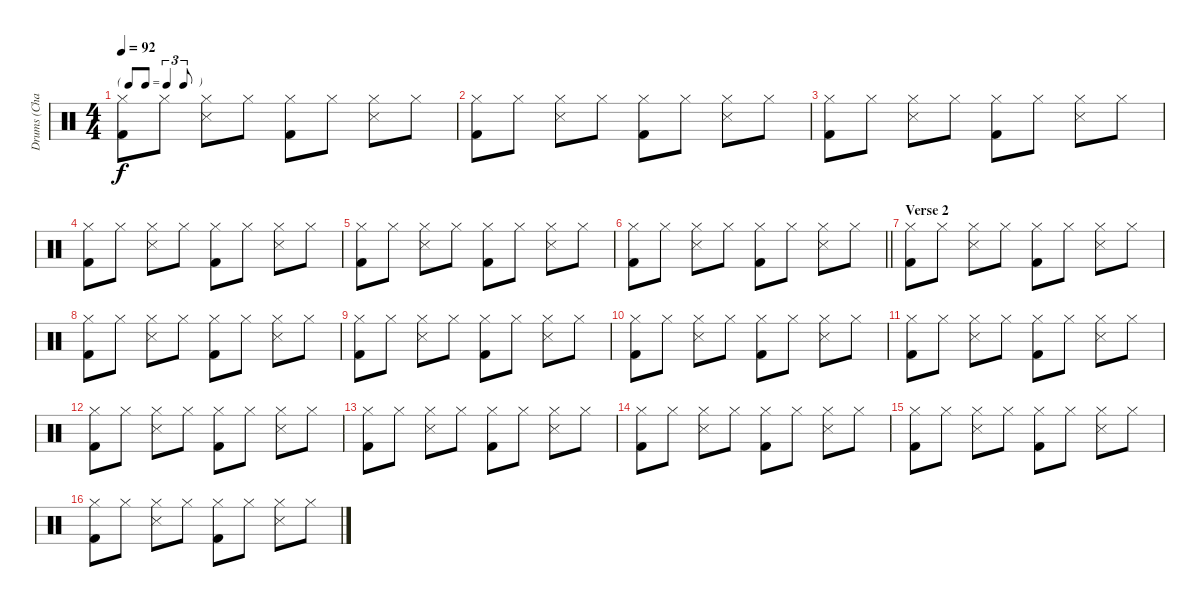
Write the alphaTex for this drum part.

\track ("Drums (Charlie)" "Drums (Cha") {instrument percussion}
\staff {score}
\articulation defaults
\ts (4 4)
\tf triplet8th
\tempo 92
\clef neutral
\ks c
("Hi-Hat (closed)" "Kick (hit) 2").8{dy f} "Hi-Hat (closed)".8 ("Hi-Hat (closed)" "Snare (side stick) 3").8 "Hi-Hat (closed)".8 ("Hi-Hat (closed)" "Kick (hit) 2").8 "Hi-Hat (closed)".8 ("Hi-Hat (closed)" "Snare (side stick) 3").8 "Hi-Hat (closed)".8 |
("Hi-Hat (closed)" "Kick (hit) 2").8 "Hi-Hat (closed)".8 ("Hi-Hat (closed)" "Snare (side stick) 3").8 "Hi-Hat (closed)".8 ("Hi-Hat (closed)" "Kick (hit) 2").8 "Hi-Hat (closed)".8 ("Hi-Hat (closed)" "Snare (side stick) 3").8 "Hi-Hat (closed)".8 |
("Hi-Hat (closed)" "Kick (hit) 2").8 "Hi-Hat (closed)".8 ("Hi-Hat (closed)" "Snare (side stick) 3").8 "Hi-Hat (closed)".8 ("Hi-Hat (closed)" "Kick (hit) 2").8 "Hi-Hat (closed)".8 ("Hi-Hat (closed)" "Snare (side stick) 3").8 "Hi-Hat (closed)".8 |
("Hi-Hat (closed)" "Kick (hit) 2").8 "Hi-Hat (closed)".8 ("Hi-Hat (closed)" "Snare (side stick) 3").8 "Hi-Hat (closed)".8 ("Hi-Hat (closed)" "Kick (hit) 2").8 "Hi-Hat (closed)".8 ("Hi-Hat (closed)" "Snare (side stick) 3").8 "Hi-Hat (closed)".8 |
("Hi-Hat (closed)" "Kick (hit) 2").8 "Hi-Hat (closed)".8 ("Hi-Hat (closed)" "Snare (side stick) 3").8 "Hi-Hat (closed)".8 ("Hi-Hat (closed)" "Kick (hit) 2").8 "Hi-Hat (closed)".8 ("Hi-Hat (closed)" "Snare (side stick) 3").8 "Hi-Hat (closed)".8 |
\barLineRight lightlight
("Hi-Hat (closed)" "Kick (hit) 2").8 "Hi-Hat (closed)".8 ("Hi-Hat (closed)" "Snare (side stick) 3").8 "Hi-Hat (closed)".8 ("Hi-Hat (closed)" "Kick (hit) 2").8 "Hi-Hat (closed)".8 ("Hi-Hat (closed)" "Snare (side stick) 3").8 "Hi-Hat (closed)".8 |
\section ("" "Verse 2")
("Hi-Hat (closed)" "Kick (hit) 2").8 "Hi-Hat (closed)".8 ("Hi-Hat (closed)" "Snare (side stick) 3").8 "Hi-Hat (closed)".8 ("Hi-Hat (closed)" "Kick (hit) 2").8 "Hi-Hat (closed)".8 ("Hi-Hat (closed)" "Snare (side stick) 3").8 "Hi-Hat (closed)".8 |
("Hi-Hat (closed)" "Kick (hit) 2").8 "Hi-Hat (closed)".8 ("Hi-Hat (closed)" "Snare (side stick) 3").8 "Hi-Hat (closed)".8 ("Hi-Hat (closed)" "Kick (hit) 2").8 "Hi-Hat (closed)".8 ("Hi-Hat (closed)" "Snare (side stick) 3").8 "Hi-Hat (closed)".8 |
("Hi-Hat (closed)" "Kick (hit) 2").8 "Hi-Hat (closed)".8 ("Hi-Hat (closed)" "Snare (side stick) 3").8 "Hi-Hat (closed)".8 ("Hi-Hat (closed)" "Kick (hit) 2").8 "Hi-Hat (closed)".8 ("Hi-Hat (closed)" "Snare (side stick) 3").8 "Hi-Hat (closed)".8 |
("Hi-Hat (closed)" "Kick (hit) 2").8 "Hi-Hat (closed)".8 ("Hi-Hat (closed)" "Snare (side stick) 3").8 "Hi-Hat (closed)".8 ("Hi-Hat (closed)" "Kick (hit) 2").8 "Hi-Hat (closed)".8 ("Hi-Hat (closed)" "Snare (side stick) 3").8 "Hi-Hat (closed)".8 |
("Hi-Hat (closed)" "Kick (hit) 2").8 "Hi-Hat (closed)".8 ("Hi-Hat (closed)" "Snare (side stick) 3").8 "Hi-Hat (closed)".8 ("Hi-Hat (closed)" "Kick (hit) 2").8 "Hi-Hat (closed)".8 ("Hi-Hat (closed)" "Snare (side stick) 3").8 "Hi-Hat (closed)".8 |
("Hi-Hat (closed)" "Kick (hit) 2").8 "Hi-Hat (closed)".8 ("Hi-Hat (closed)" "Snare (side stick) 3").8 "Hi-Hat (closed)".8 ("Hi-Hat (closed)" "Kick (hit) 2").8 "Hi-Hat (closed)".8 ("Hi-Hat (closed)" "Snare (side stick) 3").8 "Hi-Hat (closed)".8 |
("Hi-Hat (closed)" "Kick (hit) 2").8 "Hi-Hat (closed)".8 ("Hi-Hat (closed)" "Snare (side stick) 3").8 "Hi-Hat (closed)".8 ("Hi-Hat (closed)" "Kick (hit) 2").8 "Hi-Hat (closed)".8 ("Hi-Hat (closed)" "Snare (side stick) 3").8 "Hi-Hat (closed)".8 |
("Hi-Hat (closed)" "Kick (hit) 2").8 "Hi-Hat (closed)".8 ("Hi-Hat (closed)" "Snare (side stick) 3").8 "Hi-Hat (closed)".8 ("Hi-Hat (closed)" "Kick (hit) 2").8 "Hi-Hat (closed)".8 ("Hi-Hat (closed)" "Snare (side stick) 3").8 "Hi-Hat (closed)".8 |
("Hi-Hat (closed)" "Kick (hit) 2").8 "Hi-Hat (closed)".8 ("Hi-Hat (closed)" "Snare (side stick) 3").8 "Hi-Hat (closed)".8 ("Hi-Hat (closed)" "Kick (hit) 2").8 "Hi-Hat (closed)".8 ("Hi-Hat (closed)" "Snare (side stick) 3").8 "Hi-Hat (closed)".8 |
("Hi-Hat (closed)" "Kick (hit) 2").8 "Hi-Hat (closed)".8 ("Hi-Hat (closed)" "Snare (side stick) 3").8 "Hi-Hat (closed)".8 ("Hi-Hat (closed)" "Kick (hit) 2").8 "Hi-Hat (closed)".8 ("Hi-Hat (closed)" "Snare (side stick) 3").8 "Hi-Hat (closed)".8
